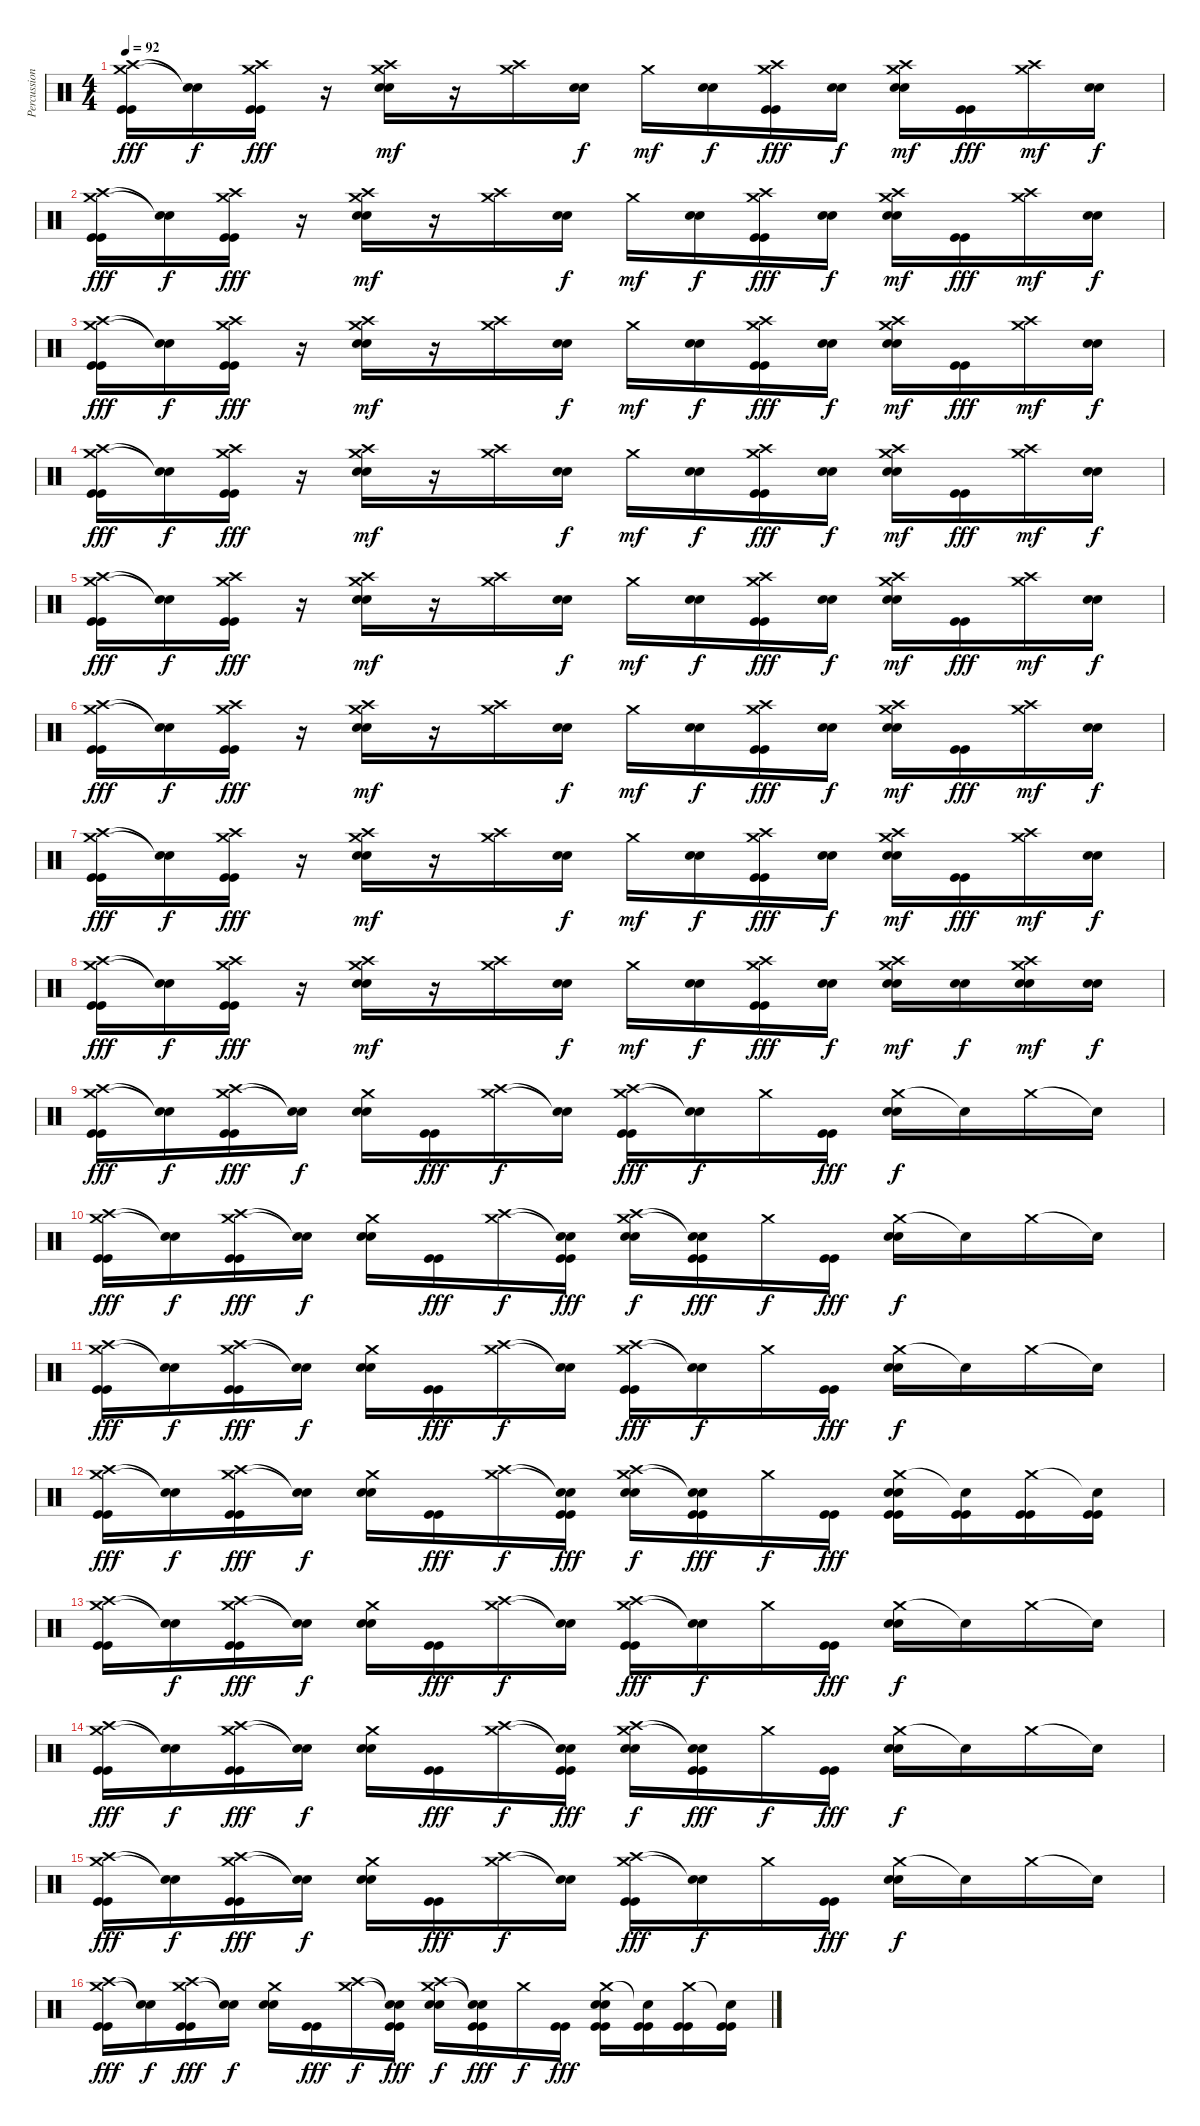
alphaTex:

\track ("Percussions" "Percussion") {instrument percussion}
\staff {score}
\articulation defaults
\ts (4 4)
\tempo 92
\clef neutral
\ks c
("Crash medium (hit)" "Crash high (hit)" "Kick (hit)" "Kick (hit)").16{dy fff} ("Snare (hit)"{t} "Snare (hit)"{t}).16{dy f} ("Crash medium (hit)" "Crash high (hit)" "Kick (hit)" "Kick (hit)").16{dy fff} r.16 ("Crash medium (hit)" "Crash high (hit)" "Electric Snare (hit)" "Electric Snare (hit)").16{dy mf} r.16 ("Crash medium (hit)" "Crash high (hit)").16 ("Electric Snare (hit)" "Electric Snare (hit)").16{dy f} "Crash medium (hit)".16{dy mf} ("Electric Snare (hit)" "Electric Snare (hit)").16{dy f} ("Crash medium (hit)" "Crash high (hit)" "Kick (hit)" "Kick (hit)").16{dy fff} ("Electric Snare (hit)" "Electric Snare (hit)").16{dy f} ("Crash medium (hit)" "Crash high (hit)" "Electric Snare (hit)" "Electric Snare (hit)").16{dy mf} ("Kick (hit)" "Kick (hit)").16{dy fff} ("Crash medium (hit)" "Crash high (hit)").16{dy mf} ("Electric Snare (hit)" "Electric Snare (hit)").16{dy f} |
("Crash medium (hit)" "Crash high (hit)" "Kick (hit)" "Kick (hit)").16{dy fff} ("Snare (hit)"{t} "Snare (hit)"{t}).16{dy f} ("Crash medium (hit)" "Crash high (hit)" "Kick (hit)" "Kick (hit)").16{dy fff} r.16 ("Crash medium (hit)" "Crash high (hit)" "Electric Snare (hit)" "Electric Snare (hit)").16{dy mf} r.16 ("Crash medium (hit)" "Crash high (hit)").16 ("Electric Snare (hit)" "Electric Snare (hit)").16{dy f} "Crash medium (hit)".16{dy mf} ("Electric Snare (hit)" "Electric Snare (hit)").16{dy f} ("Crash medium (hit)" "Crash high (hit)" "Kick (hit)" "Kick (hit)").16{dy fff} ("Electric Snare (hit)" "Electric Snare (hit)").16{dy f} ("Crash medium (hit)" "Crash high (hit)" "Electric Snare (hit)" "Electric Snare (hit)").16{dy mf} ("Kick (hit)" "Kick (hit)").16{dy fff} ("Crash medium (hit)" "Crash high (hit)").16{dy mf} ("Electric Snare (hit)" "Electric Snare (hit)").16{dy f} |
("Crash medium (hit)" "Crash high (hit)" "Kick (hit)" "Kick (hit)").16{dy fff} ("Snare (hit)"{t} "Snare (hit)"{t}).16{dy f} ("Crash medium (hit)" "Crash high (hit)" "Kick (hit)" "Kick (hit)").16{dy fff} r.16 ("Crash medium (hit)" "Crash high (hit)" "Electric Snare (hit)" "Electric Snare (hit)").16{dy mf} r.16 ("Crash medium (hit)" "Crash high (hit)").16 ("Electric Snare (hit)" "Electric Snare (hit)").16{dy f} "Crash medium (hit)".16{dy mf} ("Electric Snare (hit)" "Electric Snare (hit)").16{dy f} ("Crash medium (hit)" "Crash high (hit)" "Kick (hit)" "Kick (hit)").16{dy fff} ("Electric Snare (hit)" "Electric Snare (hit)").16{dy f} ("Crash medium (hit)" "Crash high (hit)" "Electric Snare (hit)" "Electric Snare (hit)").16{dy mf} ("Kick (hit)" "Kick (hit)").16{dy fff} ("Crash medium (hit)" "Crash high (hit)").16{dy mf} ("Electric Snare (hit)" "Electric Snare (hit)").16{dy f} |
("Crash medium (hit)" "Crash high (hit)" "Kick (hit)" "Kick (hit)").16{dy fff} ("Snare (hit)"{t} "Snare (hit)"{t}).16{dy f} ("Crash medium (hit)" "Crash high (hit)" "Kick (hit)" "Kick (hit)").16{dy fff} r.16 ("Crash medium (hit)" "Crash high (hit)" "Electric Snare (hit)" "Electric Snare (hit)").16{dy mf} r.16 ("Crash medium (hit)" "Crash high (hit)").16 ("Electric Snare (hit)" "Electric Snare (hit)").16{dy f} "Crash medium (hit)".16{dy mf} ("Electric Snare (hit)" "Electric Snare (hit)").16{dy f} ("Crash medium (hit)" "Crash high (hit)" "Kick (hit)" "Kick (hit)").16{dy fff} ("Electric Snare (hit)" "Electric Snare (hit)").16{dy f} ("Crash medium (hit)" "Crash high (hit)" "Electric Snare (hit)" "Electric Snare (hit)").16{dy mf} ("Kick (hit)" "Kick (hit)").16{dy fff} ("Crash medium (hit)" "Crash high (hit)").16{dy mf} ("Electric Snare (hit)" "Electric Snare (hit)").16{dy f} |
("Crash medium (hit)" "Crash high (hit)" "Kick (hit)" "Kick (hit)").16{dy fff} ("Snare (hit)"{t} "Snare (hit)"{t}).16{dy f} ("Crash medium (hit)" "Crash high (hit)" "Kick (hit)" "Kick (hit)").16{dy fff} r.16 ("Crash medium (hit)" "Crash high (hit)" "Electric Snare (hit)" "Electric Snare (hit)").16{dy mf} r.16 ("Crash medium (hit)" "Crash high (hit)").16 ("Electric Snare (hit)" "Electric Snare (hit)").16{dy f} "Crash medium (hit)".16{dy mf} ("Electric Snare (hit)" "Electric Snare (hit)").16{dy f} ("Crash medium (hit)" "Crash high (hit)" "Kick (hit)" "Kick (hit)").16{dy fff} ("Electric Snare (hit)" "Electric Snare (hit)").16{dy f} ("Crash medium (hit)" "Crash high (hit)" "Electric Snare (hit)" "Electric Snare (hit)").16{dy mf} ("Kick (hit)" "Kick (hit)").16{dy fff} ("Crash medium (hit)" "Crash high (hit)").16{dy mf} ("Electric Snare (hit)" "Electric Snare (hit)").16{dy f} |
("Crash medium (hit)" "Crash high (hit)" "Kick (hit)" "Kick (hit)").16{dy fff} ("Snare (hit)"{t} "Snare (hit)"{t}).16{dy f} ("Crash medium (hit)" "Crash high (hit)" "Kick (hit)" "Kick (hit)").16{dy fff} r.16 ("Crash medium (hit)" "Crash high (hit)" "Electric Snare (hit)" "Electric Snare (hit)").16{dy mf} r.16 ("Crash medium (hit)" "Crash high (hit)").16 ("Electric Snare (hit)" "Electric Snare (hit)").16{dy f} "Crash medium (hit)".16{dy mf} ("Electric Snare (hit)" "Electric Snare (hit)").16{dy f} ("Crash medium (hit)" "Crash high (hit)" "Kick (hit)" "Kick (hit)").16{dy fff} ("Electric Snare (hit)" "Electric Snare (hit)").16{dy f} ("Crash medium (hit)" "Crash high (hit)" "Electric Snare (hit)" "Electric Snare (hit)").16{dy mf} ("Kick (hit)" "Kick (hit)").16{dy fff} ("Crash medium (hit)" "Crash high (hit)").16{dy mf} ("Electric Snare (hit)" "Electric Snare (hit)").16{dy f} |
("Crash medium (hit)" "Crash high (hit)" "Kick (hit)" "Kick (hit)").16{dy fff} ("Snare (hit)"{t} "Snare (hit)"{t}).16{dy f} ("Crash medium (hit)" "Crash high (hit)" "Kick (hit)" "Kick (hit)").16{dy fff} r.16 ("Crash medium (hit)" "Crash high (hit)" "Electric Snare (hit)" "Electric Snare (hit)").16{dy mf} r.16 ("Crash medium (hit)" "Crash high (hit)").16 ("Electric Snare (hit)" "Electric Snare (hit)").16{dy f} "Crash medium (hit)".16{dy mf} ("Electric Snare (hit)" "Electric Snare (hit)").16{dy f} ("Crash medium (hit)" "Crash high (hit)" "Kick (hit)" "Kick (hit)").16{dy fff} ("Electric Snare (hit)" "Electric Snare (hit)").16{dy f} ("Crash medium (hit)" "Crash high (hit)" "Electric Snare (hit)" "Electric Snare (hit)").16{dy mf} ("Kick (hit)" "Kick (hit)").16{dy fff} ("Crash medium (hit)" "Crash high (hit)").16{dy mf} ("Electric Snare (hit)" "Electric Snare (hit)").16{dy f} |
("Crash medium (hit)" "Crash high (hit)" "Kick (hit)" "Kick (hit)").16{dy fff} ("Snare (hit)"{t} "Snare (hit)"{t}).16{dy f} ("Crash medium (hit)" "Crash high (hit)" "Kick (hit)" "Kick (hit)").16{dy fff} r.16 ("Crash medium (hit)" "Crash high (hit)" "Electric Snare (hit)" "Electric Snare (hit)").16{dy mf} r.16 ("Crash medium (hit)" "Crash high (hit)").16 ("Electric Snare (hit)" "Electric Snare (hit)").16{dy f} "Crash medium (hit)".16{dy mf} ("Electric Snare (hit)" "Electric Snare (hit)").16{dy f} ("Crash medium (hit)" "Crash high (hit)" "Kick (hit)" "Kick (hit)").16{dy fff} ("Electric Snare (hit)" "Electric Snare (hit)").16{dy f} ("Crash medium (hit)" "Crash high (hit)" "Electric Snare (hit)" "Electric Snare (hit)").16{dy mf} ("Electric Snare (hit)" "Electric Snare (hit)").16{dy f} ("Crash medium (hit)" "Crash high (hit)" "Electric Snare (hit)" "Electric Snare (hit)").16{dy mf} ("Electric Snare (hit)" "Electric Snare (hit)").16{dy f} |
("Crash medium (hit)" "Crash high (hit)" "Kick (hit)" "Kick (hit)").16{dy fff} ("Snare (hit)"{t} "Snare (hit)"{t}).16{dy f} ("Crash medium (hit)" "Crash high (hit)" "Kick (hit)" "Kick (hit)").16{dy fff} ("Snare (hit)"{t} "Snare (hit)"{t}).16{dy f} ("Crash medium (hit)" "Electric Snare (hit)" "Electric Snare (hit)").16 ("Kick (hit)" "Kick (hit)").16{dy fff} ("Crash medium (hit)" "Crash high (hit)").16{dy f} ("Snare (hit)"{t} "Snare (hit)"{t}).16 ("Crash medium (hit)" "Crash high (hit)" "Kick (hit)" "Kick (hit)").16{dy fff} ("Snare (hit)"{t} "Snare (hit)"{t}).16{dy f} "Crash medium (hit)".16 ("Kick (hit)" "Kick (hit)").16{dy fff} ("Crash medium (hit)" "Electric Snare (hit)" "Electric Snare (hit)").16{dy f} "Snare (hit)"{t}.16 "Crash medium (hit)".16 "Snare (hit)"{t}.16 |
("Crash medium (hit)" "Crash high (hit)" "Kick (hit)" "Kick (hit)").16{dy fff} ("Snare (hit)"{t} "Snare (hit)"{t}).16{dy f} ("Crash medium (hit)" "Crash high (hit)" "Kick (hit)" "Kick (hit)").16{dy fff} ("Snare (hit)"{t} "Snare (hit)"{t}).16{dy f} ("Crash medium (hit)" "Electric Snare (hit)" "Electric Snare (hit)").16 ("Kick (hit)" "Kick (hit)").16{dy fff} ("Crash medium (hit)" "Crash high (hit)").16{dy f} ("Snare (hit)"{t} "Snare (hit)"{t} "Kick (hit)" "Kick (hit)").16{dy fff} ("Crash medium (hit)" "Crash high (hit)" "Electric Snare (hit)" "Electric Snare (hit)").16{dy f} ("Snare (hit)"{t} "Snare (hit)"{t} "Kick (hit)" "Kick (hit)").16{dy fff} "Crash medium (hit)".16{dy f} ("Kick (hit)" "Kick (hit)").16{dy fff} ("Crash medium (hit)" "Electric Snare (hit)" "Electric Snare (hit)").16{dy f} "Snare (hit)"{t}.16 "Crash medium (hit)".16 "Snare (hit)"{t}.16 |
("Crash medium (hit)" "Crash high (hit)" "Kick (hit)" "Kick (hit)").16{dy fff} ("Snare (hit)"{t} "Snare (hit)"{t}).16{dy f} ("Crash medium (hit)" "Crash high (hit)" "Kick (hit)" "Kick (hit)").16{dy fff} ("Snare (hit)"{t} "Snare (hit)"{t}).16{dy f} ("Crash medium (hit)" "Electric Snare (hit)" "Electric Snare (hit)").16 ("Kick (hit)" "Kick (hit)").16{dy fff} ("Crash medium (hit)" "Crash high (hit)").16{dy f} ("Snare (hit)"{t} "Snare (hit)"{t}).16 ("Crash medium (hit)" "Crash high (hit)" "Kick (hit)" "Kick (hit)").16{dy fff} ("Snare (hit)"{t} "Snare (hit)"{t}).16{dy f} "Crash medium (hit)".16 ("Kick (hit)" "Kick (hit)").16{dy fff} ("Crash medium (hit)" "Electric Snare (hit)" "Electric Snare (hit)").16{dy f} "Snare (hit)"{t}.16 "Crash medium (hit)".16 "Snare (hit)"{t}.16 |
("Crash medium (hit)" "Crash high (hit)" "Kick (hit)" "Kick (hit)").16{dy fff} ("Snare (hit)"{t} "Snare (hit)"{t}).16{dy f} ("Crash medium (hit)" "Crash high (hit)" "Kick (hit)" "Kick (hit)").16{dy fff} ("Snare (hit)"{t} "Snare (hit)"{t}).16{dy f} ("Crash medium (hit)" "Electric Snare (hit)" "Electric Snare (hit)").16 ("Kick (hit)" "Kick (hit)").16{dy fff} ("Crash medium (hit)" "Crash high (hit)").16{dy f} ("Snare (hit)"{t} "Snare (hit)"{t} "Kick (hit)" "Kick (hit)").16{dy fff} ("Crash medium (hit)" "Crash high (hit)" "Electric Snare (hit)" "Electric Snare (hit)").16{dy f} ("Snare (hit)"{t} "Snare (hit)"{t} "Kick (hit)" "Kick (hit)").16{dy fff} "Crash medium (hit)".16{dy f} ("Kick (hit)" "Kick (hit)").16{dy fff} ("Crash medium (hit)" "Electric Snare (hit)" "Electric Snare (hit)" "Kick (hit)" "Kick (hit)").16 ("Snare (hit)"{t} "Kick (hit)" "Kick (hit)").16 ("Crash medium (hit)" "Kick (hit)" "Kick (hit)").16 ("Snare (hit)"{t} "Kick (hit)" "Kick (hit)").16 |
("Crash medium (hit)" "Crash high (hit)" "Kick (hit)" "Kick (hit)").16 ("Snare (hit)"{t} "Snare (hit)"{t}).16{dy f} ("Crash medium (hit)" "Crash high (hit)" "Kick (hit)" "Kick (hit)").16{dy fff} ("Snare (hit)"{t} "Snare (hit)"{t}).16{dy f} ("Crash medium (hit)" "Electric Snare (hit)" "Electric Snare (hit)").16 ("Kick (hit)" "Kick (hit)").16{dy fff} ("Crash medium (hit)" "Crash high (hit)").16{dy f} ("Snare (hit)"{t} "Snare (hit)"{t}).16 ("Crash medium (hit)" "Crash high (hit)" "Kick (hit)" "Kick (hit)").16{dy fff} ("Snare (hit)"{t} "Snare (hit)"{t}).16{dy f} "Crash medium (hit)".16 ("Kick (hit)" "Kick (hit)").16{dy fff} ("Crash medium (hit)" "Electric Snare (hit)" "Electric Snare (hit)").16{dy f} "Snare (hit)"{t}.16 "Crash medium (hit)".16 "Snare (hit)"{t}.16 |
("Crash medium (hit)" "Crash high (hit)" "Kick (hit)" "Kick (hit)").16{dy fff} ("Snare (hit)"{t} "Snare (hit)"{t}).16{dy f} ("Crash medium (hit)" "Crash high (hit)" "Kick (hit)" "Kick (hit)").16{dy fff} ("Snare (hit)"{t} "Snare (hit)"{t}).16{dy f} ("Crash medium (hit)" "Electric Snare (hit)" "Electric Snare (hit)").16 ("Kick (hit)" "Kick (hit)").16{dy fff} ("Crash medium (hit)" "Crash high (hit)").16{dy f} ("Snare (hit)"{t} "Snare (hit)"{t} "Kick (hit)" "Kick (hit)").16{dy fff} ("Crash medium (hit)" "Crash high (hit)" "Electric Snare (hit)" "Electric Snare (hit)").16{dy f} ("Snare (hit)"{t} "Snare (hit)"{t} "Kick (hit)" "Kick (hit)").16{dy fff} "Crash medium (hit)".16{dy f} ("Kick (hit)" "Kick (hit)").16{dy fff} ("Crash medium (hit)" "Electric Snare (hit)" "Electric Snare (hit)").16{dy f} "Snare (hit)"{t}.16 "Crash medium (hit)".16 "Snare (hit)"{t}.16 |
("Crash medium (hit)" "Crash high (hit)" "Kick (hit)" "Kick (hit)").16{dy fff} ("Snare (hit)"{t} "Snare (hit)"{t}).16{dy f} ("Crash medium (hit)" "Crash high (hit)" "Kick (hit)" "Kick (hit)").16{dy fff} ("Snare (hit)"{t} "Snare (hit)"{t}).16{dy f} ("Crash medium (hit)" "Electric Snare (hit)" "Electric Snare (hit)").16 ("Kick (hit)" "Kick (hit)").16{dy fff} ("Crash medium (hit)" "Crash high (hit)").16{dy f} ("Snare (hit)"{t} "Snare (hit)"{t}).16 ("Crash medium (hit)" "Crash high (hit)" "Kick (hit)" "Kick (hit)").16{dy fff} ("Snare (hit)"{t} "Snare (hit)"{t}).16{dy f} "Crash medium (hit)".16 ("Kick (hit)" "Kick (hit)").16{dy fff} ("Crash medium (hit)" "Electric Snare (hit)" "Electric Snare (hit)").16{dy f} "Snare (hit)"{t}.16 "Crash medium (hit)".16 "Snare (hit)"{t}.16 |
("Crash medium (hit)" "Crash high (hit)" "Kick (hit)" "Kick (hit)").16{dy fff} ("Snare (hit)"{t} "Snare (hit)"{t}).16{dy f} ("Crash medium (hit)" "Crash high (hit)" "Kick (hit)" "Kick (hit)").16{dy fff} ("Snare (hit)"{t} "Snare (hit)"{t}).16{dy f} ("Crash medium (hit)" "Electric Snare (hit)" "Electric Snare (hit)").16 ("Kick (hit)" "Kick (hit)").16{dy fff} ("Crash medium (hit)" "Crash high (hit)").16{dy f} ("Snare (hit)"{t} "Snare (hit)"{t} "Kick (hit)" "Kick (hit)").16{dy fff} ("Crash medium (hit)" "Crash high (hit)" "Electric Snare (hit)" "Electric Snare (hit)").16{dy f} ("Snare (hit)"{t} "Snare (hit)"{t} "Kick (hit)" "Kick (hit)").16{dy fff} "Crash medium (hit)".16{dy f} ("Kick (hit)" "Kick (hit)").16{dy fff} ("Crash medium (hit)" "Electric Snare (hit)" "Electric Snare (hit)" "Kick (hit)" "Kick (hit)").16 ("Snare (hit)"{t} "Kick (hit)" "Kick (hit)").16 ("Crash medium (hit)" "Kick (hit)" "Kick (hit)").16 ("Snare (hit)"{t} "Kick (hit)" "Kick (hit)").16
